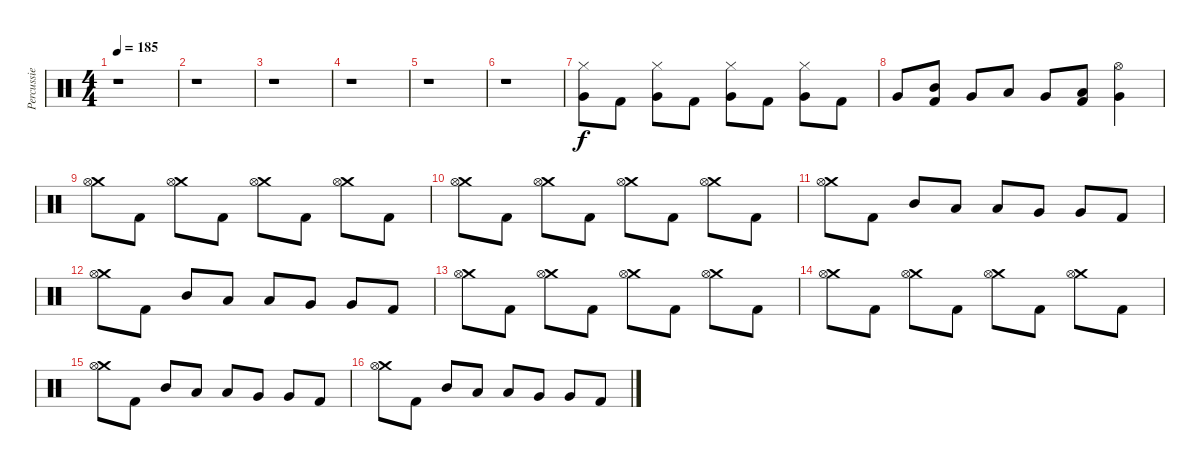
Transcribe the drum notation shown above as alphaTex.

\track ("Percussie" "Percussie") {instrument percussion}
\staff {score}
\articulation defaults
\ts (4 4)
\tempo 185
\clef neutral
\ks c
r.1{dy f} |
r.1 |
r.1 |
r.1 |
r.1 |
r.1 |
("Hi-Hat (closed)" "Very Low Tom (hit)").8 "Kick (hit) 2".8 ("Hi-Hat (closed)" "Very Low Tom (hit)").8 "Kick (hit) 2".8 ("Hi-Hat (closed)" "Very Low Tom (hit)").8 "Kick (hit) 2".8 ("Hi-Hat (closed)" "Very Low Tom (hit)").8 "Kick (hit) 2".8 |
"Very Low Tom (hit)".8 ("Mid Tom (hit)" "Kick (hit) 2").8 "Very Low Tom (hit)".8 "Low Tom (hit)".8 "Very Low Tom (hit)".8 ("Low Tom (hit)" "Kick (hit) 2").8 ("Hi-Hat (open)" "Very Low Tom (hit)").4 |
("Crash medium (hit)" "Hi-Hat (open)").8 "Kick (hit) 2".8 ("Crash medium (hit)" "Hi-Hat (open)").8 "Kick (hit) 2".8 ("Crash medium (hit)" "Hi-Hat (open)").8 "Kick (hit) 2".8 ("Crash medium (hit)" "Hi-Hat (open)").8 "Kick (hit) 2".8 |
("Crash medium (hit)" "Hi-Hat (open)").8 "Kick (hit) 2".8 ("Crash medium (hit)" "Hi-Hat (open)").8 "Kick (hit) 2".8 ("Crash medium (hit)" "Hi-Hat (open)").8 "Kick (hit) 2".8 ("Crash medium (hit)" "Hi-Hat (open)").8 "Kick (hit) 2".8 |
("Crash medium (hit)" "Hi-Hat (open)").8 "Kick (hit) 2".8 "Mid Tom (hit)".8 "Low Tom (hit)".8 "Low Tom (hit)".8 "Very Low Tom (hit)".8 "Very Low Tom (hit)".8 "Kick (hit) 2".8 |
("Crash medium (hit)" "Hi-Hat (open)").8 "Kick (hit) 2".8 "Mid Tom (hit)".8 "Low Tom (hit)".8 "Low Tom (hit)".8 "Very Low Tom (hit)".8 "Very Low Tom (hit)".8 "Kick (hit) 2".8 |
("Crash medium (hit)" "Hi-Hat (open)").8 "Kick (hit) 2".8 ("Crash medium (hit)" "Hi-Hat (open)").8 "Kick (hit) 2".8 ("Crash medium (hit)" "Hi-Hat (open)").8 "Kick (hit) 2".8 ("Crash medium (hit)" "Hi-Hat (open)").8 "Kick (hit) 2".8 |
("Crash medium (hit)" "Hi-Hat (open)").8 "Kick (hit) 2".8 ("Crash medium (hit)" "Hi-Hat (open)").8 "Kick (hit) 2".8 ("Crash medium (hit)" "Hi-Hat (open)").8 "Kick (hit) 2".8 ("Crash medium (hit)" "Hi-Hat (open)").8 "Kick (hit) 2".8 |
("Crash medium (hit)" "Hi-Hat (open)").8 "Kick (hit) 2".8 "Mid Tom (hit)".8 "Low Tom (hit)".8 "Low Tom (hit)".8 "Very Low Tom (hit)".8 "Very Low Tom (hit)".8 "Kick (hit) 2".8 |
("Crash medium (hit)" "Hi-Hat (open)").8 "Kick (hit) 2".8 "Mid Tom (hit)".8 "Low Tom (hit)".8 "Low Tom (hit)".8 "Very Low Tom (hit)".8 "Very Low Tom (hit)".8 "Kick (hit) 2".8
